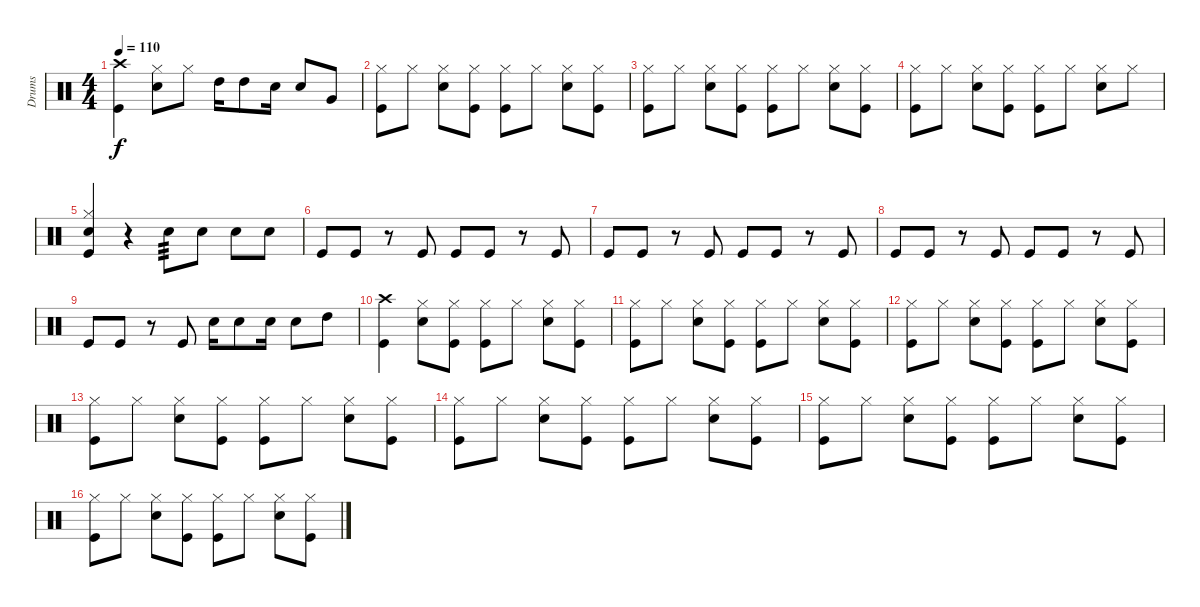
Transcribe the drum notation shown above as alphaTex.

\track ("Drums" "Drums") {instrument percussion}
\staff {score}
\articulation defaults
\ts (4 4)
\tempo 110
\clef neutral
\ks c
("Crash high (hit)" "Kick (hit)").4{dy f} ("Hi-Hat (closed)" "Snare (hit) 2").8 "Hi-Hat (closed)".8 "High Tom (hit)".16 "High Tom (hit)".8 "Snare (hit) 2".16 "Snare (hit) 2".8 "Very Low Tom (hit)".8 |
("Hi-Hat (closed)" "Kick (hit)").8 "Hi-Hat (closed)".8 ("Hi-Hat (closed)" "Snare (hit) 2").8 ("Hi-Hat (closed)" "Kick (hit)").8 ("Hi-Hat (closed)" "Kick (hit)").8 "Hi-Hat (closed)".8 ("Hi-Hat (closed)" "Snare (hit) 2").8 ("Hi-Hat (closed)" "Kick (hit)").8 |
("Hi-Hat (closed)" "Kick (hit)").8 "Hi-Hat (closed)".8 ("Hi-Hat (closed)" "Snare (hit) 2").8 ("Hi-Hat (closed)" "Kick (hit)").8 ("Hi-Hat (closed)" "Kick (hit)").8 "Hi-Hat (closed)".8 ("Hi-Hat (closed)" "Snare (hit) 2").8 ("Hi-Hat (closed)" "Kick (hit)").8 |
("Hi-Hat (closed)" "Kick (hit)").8 "Hi-Hat (closed)".8 ("Hi-Hat (closed)" "Snare (hit) 2").8 ("Hi-Hat (closed)" "Kick (hit)").8 ("Hi-Hat (closed)" "Kick (hit)").8 "Hi-Hat (closed)".8 ("Hi-Hat (closed)" "Snare (hit) 2").8 "Hi-Hat (closed)".8 |
("Hi-Hat (closed)" "Snare (hit) 2" "Kick (hit)").4 r.4 "Snare (hit) 2".8{tp 3} "Snare (hit) 2".8 "Snare (hit) 2".8 "Snare (hit) 2".8 |
"Kick (hit)".8 "Kick (hit)".8 r.8 "Kick (hit)".8 "Kick (hit)".8 "Kick (hit)".8 r.8 "Kick (hit)".8 |
"Kick (hit)".8 "Kick (hit)".8 r.8 "Kick (hit)".8 "Kick (hit)".8 "Kick (hit)".8 r.8 "Kick (hit)".8 |
"Kick (hit)".8 "Kick (hit)".8 r.8 "Kick (hit)".8 "Kick (hit)".8 "Kick (hit)".8 r.8 "Kick (hit)".8 |
"Kick (hit)".8 "Kick (hit)".8 r.8 "Kick (hit)".8 "Snare (hit) 2".16 "Snare (hit) 2".8 "Snare (hit) 2".16 "Snare (hit) 2".8 "High Tom (hit)".8 |
("Crash high (hit)" "Kick (hit)").4 ("Hi-Hat (closed)" "Snare (hit) 2").8 ("Hi-Hat (closed)" "Kick (hit)").8 ("Hi-Hat (closed)" "Kick (hit)").8 "Hi-Hat (closed)".8 ("Hi-Hat (closed)" "Snare (hit) 2").8 ("Hi-Hat (closed)" "Kick (hit)").8 |
("Hi-Hat (closed)" "Kick (hit)").8 "Hi-Hat (closed)".8 ("Hi-Hat (closed)" "Snare (hit) 2").8 ("Hi-Hat (closed)" "Kick (hit)").8 ("Hi-Hat (closed)" "Kick (hit)").8 "Hi-Hat (closed)".8 ("Hi-Hat (closed)" "Snare (hit) 2").8 ("Hi-Hat (closed)" "Kick (hit)").8 |
("Hi-Hat (closed)" "Kick (hit)").8 "Hi-Hat (closed)".8 ("Hi-Hat (closed)" "Snare (hit) 2").8 ("Hi-Hat (closed)" "Kick (hit)").8 ("Hi-Hat (closed)" "Kick (hit)").8 "Hi-Hat (closed)".8 ("Hi-Hat (closed)" "Snare (hit) 2").8 ("Hi-Hat (closed)" "Kick (hit)").8 |
("Hi-Hat (closed)" "Kick (hit)").8 "Hi-Hat (closed)".8 ("Hi-Hat (closed)" "Snare (hit) 2").8 ("Hi-Hat (closed)" "Kick (hit)").8 ("Hi-Hat (closed)" "Kick (hit)").8 "Hi-Hat (closed)".8 ("Hi-Hat (closed)" "Snare (hit) 2").8 ("Hi-Hat (closed)" "Kick (hit)").8 |
("Hi-Hat (closed)" "Kick (hit)").8 "Hi-Hat (closed)".8 ("Hi-Hat (closed)" "Snare (hit) 2").8 ("Hi-Hat (closed)" "Kick (hit)").8 ("Hi-Hat (closed)" "Kick (hit)").8 "Hi-Hat (closed)".8 ("Hi-Hat (closed)" "Snare (hit) 2").8 ("Hi-Hat (closed)" "Kick (hit)").8 |
("Hi-Hat (closed)" "Kick (hit)").8 "Hi-Hat (closed)".8 ("Hi-Hat (closed)" "Snare (hit) 2").8 ("Hi-Hat (closed)" "Kick (hit)").8 ("Hi-Hat (closed)" "Kick (hit)").8 "Hi-Hat (closed)".8 ("Hi-Hat (closed)" "Snare (hit) 2").8 ("Hi-Hat (closed)" "Kick (hit)").8 |
("Hi-Hat (closed)" "Kick (hit)").8 "Hi-Hat (closed)".8 ("Hi-Hat (closed)" "Snare (hit) 2").8 ("Hi-Hat (closed)" "Kick (hit)").8 ("Hi-Hat (closed)" "Kick (hit)").8 "Hi-Hat (closed)".8 ("Hi-Hat (closed)" "Snare (hit) 2").8 ("Hi-Hat (closed)" "Kick (hit)").8
